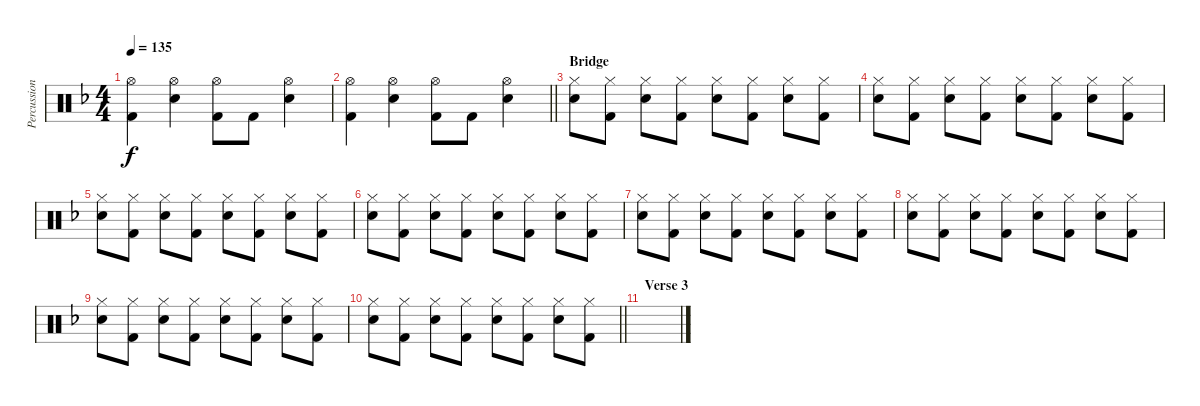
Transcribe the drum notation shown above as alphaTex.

\track ("Percussion" "Percussion") {instrument percussion}
\staff {score}
\articulation defaults
\ts (4 4)
\tempo 135
\clef neutral
\ks f
("Hi-Hat (open)" "Kick (hit) 2").4{dy f} ("Hi-Hat (open)" "Snare (hit) 2").4 ("Hi-Hat (open)" "Kick (hit) 2").8 "Kick (hit) 2".8 ("Hi-Hat (open)" "Snare (hit) 2").4 |
\barLineRight lightlight
("Hi-Hat (open)" "Kick (hit) 2").4 ("Hi-Hat (open)" "Snare (hit) 2").4 ("Hi-Hat (open)" "Kick (hit) 2").8 "Kick (hit) 2".8 ("Hi-Hat (open)" "Snare (hit) 2").4 |
\section ("" "Bridge")
("Hi-Hat (closed)" "Snare (hit) 2").8 ("Hi-Hat (closed)" "Kick (hit) 2").8 ("Hi-Hat (closed)" "Snare (hit) 2").8 ("Hi-Hat (closed)" "Kick (hit) 2").8 ("Hi-Hat (closed)" "Snare (hit) 2").8 ("Hi-Hat (closed)" "Kick (hit) 2").8 ("Hi-Hat (closed)" "Snare (hit) 2").8 ("Hi-Hat (closed)" "Kick (hit) 2").8 |
("Hi-Hat (closed)" "Snare (hit) 2").8 ("Hi-Hat (closed)" "Kick (hit) 2").8 ("Hi-Hat (closed)" "Snare (hit) 2").8 ("Hi-Hat (closed)" "Kick (hit) 2").8 ("Hi-Hat (closed)" "Snare (hit) 2").8 ("Hi-Hat (closed)" "Kick (hit) 2").8 ("Hi-Hat (closed)" "Snare (hit) 2").8 ("Hi-Hat (closed)" "Kick (hit) 2").8 |
("Hi-Hat (closed)" "Snare (hit) 2").8 ("Hi-Hat (closed)" "Kick (hit) 2").8 ("Hi-Hat (closed)" "Snare (hit) 2").8 ("Hi-Hat (closed)" "Kick (hit) 2").8 ("Hi-Hat (closed)" "Snare (hit) 2").8 ("Hi-Hat (closed)" "Kick (hit) 2").8 ("Hi-Hat (closed)" "Snare (hit) 2").8 ("Hi-Hat (closed)" "Kick (hit) 2").8 |
("Hi-Hat (closed)" "Snare (hit) 2").8 ("Hi-Hat (closed)" "Kick (hit) 2").8 ("Hi-Hat (closed)" "Snare (hit) 2").8 ("Hi-Hat (closed)" "Kick (hit) 2").8 ("Hi-Hat (closed)" "Snare (hit) 2").8 ("Hi-Hat (closed)" "Kick (hit) 2").8 ("Hi-Hat (closed)" "Snare (hit) 2").8 ("Hi-Hat (closed)" "Kick (hit) 2").8 |
("Hi-Hat (closed)" "Snare (hit) 2").8 ("Hi-Hat (closed)" "Kick (hit) 2").8 ("Hi-Hat (closed)" "Snare (hit) 2").8 ("Hi-Hat (closed)" "Kick (hit) 2").8 ("Hi-Hat (closed)" "Snare (hit) 2").8 ("Hi-Hat (closed)" "Kick (hit) 2").8 ("Hi-Hat (closed)" "Snare (hit) 2").8 ("Hi-Hat (closed)" "Kick (hit) 2").8 |
("Hi-Hat (closed)" "Snare (hit) 2").8 ("Hi-Hat (closed)" "Kick (hit) 2").8 ("Hi-Hat (closed)" "Snare (hit) 2").8 ("Hi-Hat (closed)" "Kick (hit) 2").8 ("Hi-Hat (closed)" "Snare (hit) 2").8 ("Hi-Hat (closed)" "Kick (hit) 2").8 ("Hi-Hat (closed)" "Snare (hit) 2").8 ("Hi-Hat (closed)" "Kick (hit) 2").8 |
("Hi-Hat (closed)" "Snare (hit) 2").8 ("Hi-Hat (closed)" "Kick (hit) 2").8 ("Hi-Hat (closed)" "Snare (hit) 2").8 ("Hi-Hat (closed)" "Kick (hit) 2").8 ("Hi-Hat (closed)" "Snare (hit) 2").8 ("Hi-Hat (closed)" "Kick (hit) 2").8 ("Hi-Hat (closed)" "Snare (hit) 2").8 ("Hi-Hat (closed)" "Kick (hit) 2").8 |
\barLineRight lightlight
("Hi-Hat (closed)" "Snare (hit) 2").8 ("Hi-Hat (closed)" "Kick (hit) 2").8 ("Hi-Hat (closed)" "Snare (hit) 2").8 ("Hi-Hat (closed)" "Kick (hit) 2").8 ("Hi-Hat (closed)" "Snare (hit) 2").8 ("Hi-Hat (closed)" "Kick (hit) 2").8 ("Hi-Hat (closed)" "Snare (hit) 2").8 ("Hi-Hat (closed)" "Kick (hit) 2").8 |
\section ("" "Verse 3")
